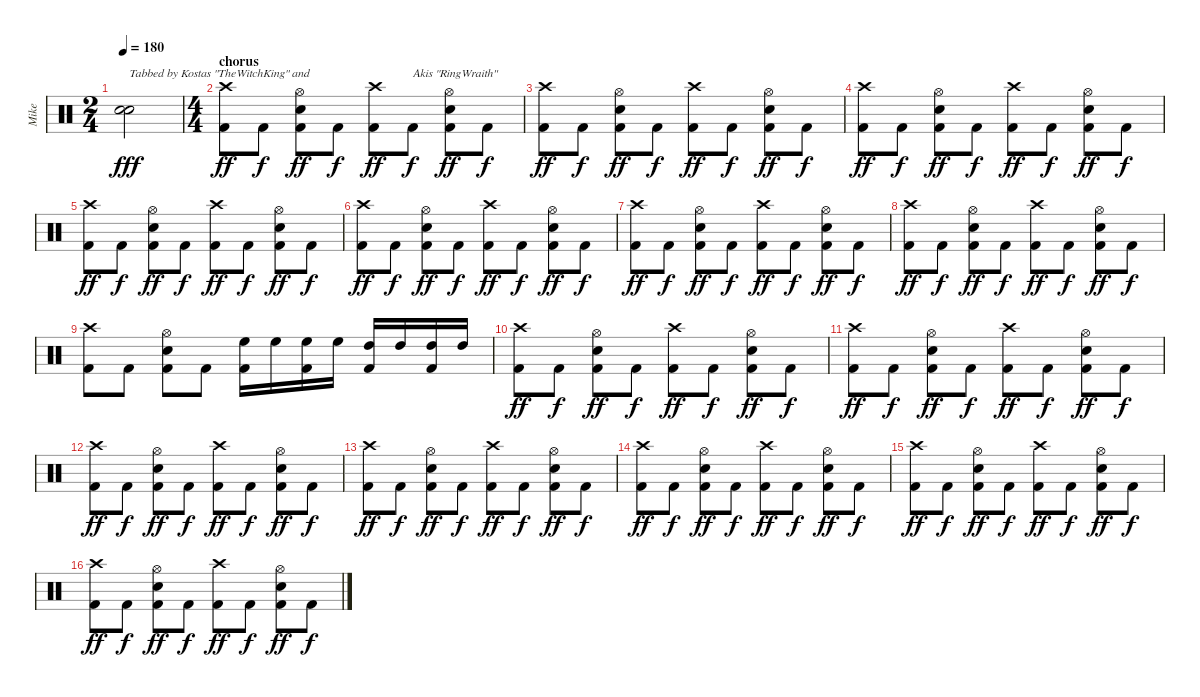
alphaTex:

\track ("Mike" "Mike") {instrument percussion}
\staff {score}
\articulation defaults
\ts (2 4)
\tempo 180
\clef neutral
\ks c
("Snare (hit) 2" "Snare (hit) 2").2{txt "Tabbed by Kostas \"TheWitchKing\" and" dy fff} |
\ts (4 4)
\section ("" "chorus")
("Crash high (hit)" "Kick (hit) 2").8{dy ff} "Kick (hit) 2".8{dy f} ("Hi-Hat (open)" "Snare (hit) 2" "Kick (hit) 2").8{dy ff} "Kick (hit) 2".8{dy f} ("Crash high (hit)" "Kick (hit) 2").8{dy ff} "Kick (hit) 2".8{txt "Akis \"RingWraith\"" dy f} ("Hi-Hat (open)" "Snare (hit) 2" "Kick (hit) 2").8{dy ff} "Kick (hit) 2".8{dy f} |
("Crash high (hit)" "Kick (hit) 2").8{dy ff} "Kick (hit) 2".8{dy f} ("Hi-Hat (open)" "Snare (hit) 2" "Kick (hit) 2").8{dy ff} "Kick (hit) 2".8{dy f} ("Crash high (hit)" "Kick (hit) 2").8{dy ff} "Kick (hit) 2".8{dy f} ("Hi-Hat (open)" "Snare (hit) 2" "Kick (hit) 2").8{dy ff} "Kick (hit) 2".8{dy f} |
("Crash high (hit)" "Kick (hit) 2").8{dy ff} "Kick (hit) 2".8{dy f} ("Hi-Hat (open)" "Snare (hit) 2" "Kick (hit) 2").8{dy ff} "Kick (hit) 2".8{dy f} ("Crash high (hit)" "Kick (hit) 2").8{dy ff} "Kick (hit) 2".8{dy f} ("Hi-Hat (open)" "Snare (hit) 2" "Kick (hit) 2").8{dy ff} "Kick (hit) 2".8{dy f} |
("Crash high (hit)" "Kick (hit) 2").8{dy ff} "Kick (hit) 2".8{dy f} ("Hi-Hat (open)" "Snare (hit) 2" "Kick (hit) 2").8{dy ff} "Kick (hit) 2".8{dy f} ("Crash high (hit)" "Kick (hit) 2").8{dy ff} "Kick (hit) 2".8{dy f} ("Hi-Hat (open)" "Snare (hit) 2" "Kick (hit) 2").8{dy ff} "Kick (hit) 2".8{dy f} |
("Crash high (hit)" "Kick (hit) 2").8{dy ff} "Kick (hit) 2".8{dy f} ("Hi-Hat (open)" "Snare (hit) 2" "Kick (hit) 2").8{dy ff} "Kick (hit) 2".8{dy f} ("Crash high (hit)" "Kick (hit) 2").8{dy ff} "Kick (hit) 2".8{dy f} ("Hi-Hat (open)" "Snare (hit) 2" "Kick (hit) 2").8{dy ff} "Kick (hit) 2".8{dy f} |
("Crash high (hit)" "Kick (hit) 2").8{dy ff} "Kick (hit) 2".8{dy f} ("Hi-Hat (open)" "Snare (hit) 2" "Kick (hit) 2").8{dy ff} "Kick (hit) 2".8{dy f} ("Crash high (hit)" "Kick (hit) 2").8{dy ff} "Kick (hit) 2".8{dy f} ("Hi-Hat (open)" "Snare (hit) 2" "Kick (hit) 2").8{dy ff} "Kick (hit) 2".8{dy f} |
("Crash high (hit)" "Kick (hit) 2").8{dy ff} "Kick (hit) 2".8{dy f} ("Hi-Hat (open)" "Snare (hit) 2" "Kick (hit) 2").8{dy ff} "Kick (hit) 2".8{dy f} ("Crash high (hit)" "Kick (hit) 2").8{dy ff} "Kick (hit) 2".8{dy f} ("Hi-Hat (open)" "Snare (hit) 2" "Kick (hit) 2").8{dy ff} "Kick (hit) 2".8{dy f} |
("Crash high (hit)" "Kick (hit) 2").8 "Kick (hit) 2".8 ("Hi-Hat (open)" "Snare (hit) 2" "Kick (hit) 2").8 "Kick (hit) 2".8 ("High Floor Tom (hit)" "Kick (hit) 2").16 "High Floor Tom (hit)".16 ("High Floor Tom (hit)" "Kick (hit) 2").16 "High Floor Tom (hit)".16 ("High Tom (hit)" "Kick (hit) 2").16 "High Tom (hit)".16 ("High Tom (hit)" "Kick (hit) 2").16 "High Tom (hit)".16 |
("Crash high (hit)" "Kick (hit) 2").8{dy ff} "Kick (hit) 2".8{dy f} ("Hi-Hat (open)" "Snare (hit) 2" "Kick (hit) 2").8{dy ff} "Kick (hit) 2".8{dy f} ("Crash high (hit)" "Kick (hit) 2").8{dy ff} "Kick (hit) 2".8{dy f} ("Hi-Hat (open)" "Snare (hit) 2" "Kick (hit) 2").8{dy ff} "Kick (hit) 2".8{dy f} |
("Crash high (hit)" "Kick (hit) 2").8{dy ff} "Kick (hit) 2".8{dy f} ("Hi-Hat (open)" "Snare (hit) 2" "Kick (hit) 2").8{dy ff} "Kick (hit) 2".8{dy f} ("Crash high (hit)" "Kick (hit) 2").8{dy ff} "Kick (hit) 2".8{dy f} ("Hi-Hat (open)" "Snare (hit) 2" "Kick (hit) 2").8{dy ff} "Kick (hit) 2".8{dy f} |
("Crash high (hit)" "Kick (hit) 2").8{dy ff} "Kick (hit) 2".8{dy f} ("Hi-Hat (open)" "Snare (hit) 2" "Kick (hit) 2").8{dy ff} "Kick (hit) 2".8{dy f} ("Crash high (hit)" "Kick (hit) 2").8{dy ff} "Kick (hit) 2".8{dy f} ("Hi-Hat (open)" "Snare (hit) 2" "Kick (hit) 2").8{dy ff} "Kick (hit) 2".8{dy f} |
("Crash high (hit)" "Kick (hit) 2").8{dy ff} "Kick (hit) 2".8{dy f} ("Hi-Hat (open)" "Snare (hit) 2" "Kick (hit) 2").8{dy ff} "Kick (hit) 2".8{dy f} ("Crash high (hit)" "Kick (hit) 2").8{dy ff} "Kick (hit) 2".8{dy f} ("Hi-Hat (open)" "Snare (hit) 2" "Kick (hit) 2").8{dy ff} "Kick (hit) 2".8{dy f} |
("Crash high (hit)" "Kick (hit) 2").8{dy ff} "Kick (hit) 2".8{dy f} ("Hi-Hat (open)" "Snare (hit) 2" "Kick (hit) 2").8{dy ff} "Kick (hit) 2".8{dy f} ("Crash high (hit)" "Kick (hit) 2").8{dy ff} "Kick (hit) 2".8{dy f} ("Hi-Hat (open)" "Snare (hit) 2" "Kick (hit) 2").8{dy ff} "Kick (hit) 2".8{dy f} |
("Crash high (hit)" "Kick (hit) 2").8{dy ff} "Kick (hit) 2".8{dy f} ("Hi-Hat (open)" "Snare (hit) 2" "Kick (hit) 2").8{dy ff} "Kick (hit) 2".8{dy f} ("Crash high (hit)" "Kick (hit) 2").8{dy ff} "Kick (hit) 2".8{dy f} ("Hi-Hat (open)" "Snare (hit) 2" "Kick (hit) 2").8{dy ff} "Kick (hit) 2".8{dy f} |
("Crash high (hit)" "Kick (hit) 2").8{dy ff} "Kick (hit) 2".8{dy f} ("Hi-Hat (open)" "Snare (hit) 2" "Kick (hit) 2").8{dy ff} "Kick (hit) 2".8{dy f} ("Crash high (hit)" "Kick (hit) 2").8{dy ff} "Kick (hit) 2".8{dy f} ("Hi-Hat (open)" "Snare (hit) 2" "Kick (hit) 2").8{dy ff} "Kick (hit) 2".8{dy f}
